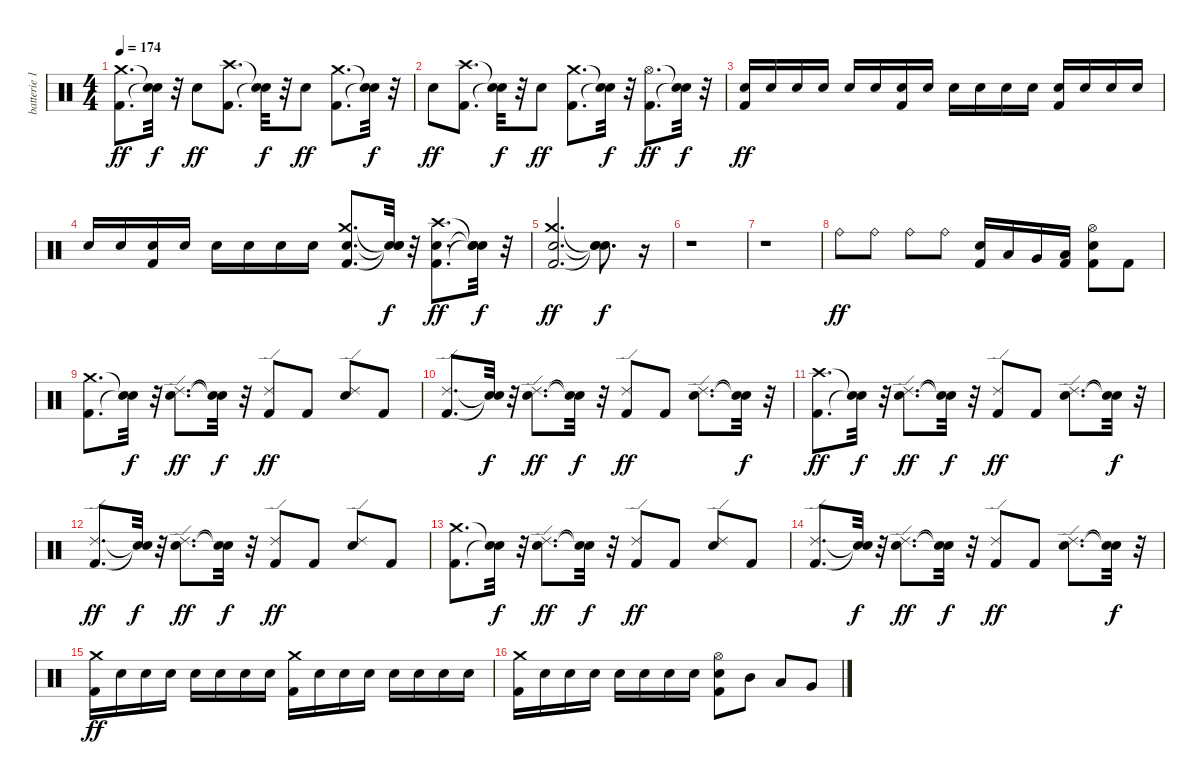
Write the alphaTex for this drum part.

\track ("batterie 1" "batterie 1") {instrument percussion}
\staff {score}
\articulation defaults
\ts (4 4)
\tempo 174
\clef neutral
\ks c
("Kick (hit) 2" "Crash medium (hit)").8{d dy ff} ("Snare (hit)"{t} "Snare (hit)"{t}).32{dy f} r.32 "Electric Snare (hit)".8{dy ff} ("Kick (hit) 2" "Crash high (hit)").8{d} ("Snare (hit)"{t} "Snare (hit)"{t}).32{dy f} r.32 "Electric Snare (hit)".8{dy ff} ("Kick (hit) 2" "Crash medium (hit)").8{d} ("Snare (hit)"{t} "Snare (hit)"{t}).32{dy f} r.32 |
"Electric Snare (hit)".8{dy ff} ("Kick (hit) 2" "Crash high (hit)").8{d} ("Snare (hit)"{t} "Snare (hit)"{t}).32{dy f} r.32 "Electric Snare (hit)".8{dy ff} ("Kick (hit) 2" "Crash medium (hit)").8{d} ("Snare (hit)"{t} "Snare (hit)"{t}).32{dy f} r.32 ("Kick (hit) 2" "Hi-Hat (open)").8{d dy ff} ("Snare (hit)"{t} "Snare (hit)"{t}).32{dy f} r.32 |
("Kick (hit) 2" "Electric Snare (hit)").16{dy ff} "Electric Snare (hit)".16 "Electric Snare (hit)".16 "Electric Snare (hit)".16 "Electric Snare (hit)".16 "Electric Snare (hit)".16 ("Kick (hit) 2" "Electric Snare (hit)").16 "Electric Snare (hit)".16 "Electric Snare (hit)".16 "Electric Snare (hit)".16 "Electric Snare (hit)".16 "Electric Snare (hit)".16 ("Kick (hit) 2" "Electric Snare (hit)").16 "Electric Snare (hit)".16 "Electric Snare (hit)".16 "Electric Snare (hit)".16 |
"Electric Snare (hit)".16 "Electric Snare (hit)".16 ("Kick (hit) 2" "Electric Snare (hit)").16 "Electric Snare (hit)".16 "Electric Snare (hit)".16 "Electric Snare (hit)".16 "Electric Snare (hit)".16 "Electric Snare (hit)".16 ("Kick (hit) 2" "Electric Snare (hit)" "Crash medium (hit)").8{d} ("Snare (hit)"{t} "Snare (hit)"{t} "Snare (hit)"{t}).32{dy f} r.32 ("Kick (hit) 2" "Electric Snare (hit)" "Crash high (hit)").8{d dy ff} ("Snare (hit)"{t} "Snare (hit)"{t} "Snare (hit)"{t}).32{dy f} r.32 |
("Kick (hit) 2" "Electric Snare (hit)" "Crash medium (hit)").2{d dy ff} ("Snare (hit)"{t} "Snare (hit)"{t} "Snare (hit)"{t}).8{d dy f} r.16 |
r.1 |
r.1 |
"Ride (bell)".8{dy ff} "Ride (bell)".8 "Ride (bell)".8 "Ride (bell)".8 ("Kick (hit) 2" "Electric Snare (hit)").16 "Low Tom (hit)".16 "Very Low Tom (hit)".16 ("Kick (hit) 2" "Low Floor Tom (hit)").16 ("Kick (hit) 2" "Electric Snare (hit)" "Hi-Hat (open)").8 "Kick (hit) 2".8 |
("Kick (hit) 2" "Crash medium (hit)").8{d} ("Snare (hit)"{t} "Snare (hit)"{t}).32{dy f} r.32 ("Electric Snare (hit)" "Ride (edge) 2").8{d dy ff} ("Snare (hit)"{t} "Snare (hit)"{t}).32{dy f} r.32 ("Kick (hit) 2" "Ride (edge) 2").8{dy ff} "Kick (hit) 2".8 ("Electric Snare (hit)" "Ride (edge) 2").8 "Kick (hit) 2".8 |
("Kick (hit) 2" "Ride (edge) 2").8{d} ("Snare (hit)"{t} "Snare (hit)"{t}).32{dy f} r.32 ("Electric Snare (hit)" "Ride (edge) 2").8{d dy ff} ("Snare (hit)"{t} "Snare (hit)"{t}).32{dy f} r.32 ("Kick (hit) 2" "Ride (edge) 2").8{dy ff} "Kick (hit) 2".8 ("Electric Snare (hit)" "Ride (edge) 2").8{d} ("Snare (hit)"{t} "Snare (hit)"{t}).32{dy f} r.32 |
("Kick (hit) 2" "Crash high (hit)").8{d dy ff} ("Snare (hit)"{t} "Snare (hit)"{t}).32{dy f} r.32 ("Electric Snare (hit)" "Ride (edge) 2").8{d dy ff} ("Snare (hit)"{t} "Snare (hit)"{t}).32{dy f} r.32 ("Kick (hit) 2" "Ride (edge) 2").8{dy ff} "Kick (hit) 2".8 ("Electric Snare (hit)" "Ride (edge) 2").8{d} ("Snare (hit)"{t} "Snare (hit)"{t}).32{dy f} r.32 |
("Kick (hit) 2" "Ride (edge) 2").8{d dy ff} ("Snare (hit)"{t} "Snare (hit)"{t}).32{dy f} r.32 ("Electric Snare (hit)" "Ride (edge) 2").8{d dy ff} ("Snare (hit)"{t} "Snare (hit)"{t}).32{dy f} r.32 ("Kick (hit) 2" "Ride (edge) 2").8{dy ff} "Kick (hit) 2".8 ("Electric Snare (hit)" "Ride (edge) 2").8 "Kick (hit) 2".8 |
("Kick (hit) 2" "Crash medium (hit)").8{d} ("Snare (hit)"{t} "Snare (hit)"{t}).32{dy f} r.32 ("Electric Snare (hit)" "Ride (edge) 2").8{d dy ff} ("Snare (hit)"{t} "Snare (hit)"{t}).32{dy f} r.32 ("Kick (hit) 2" "Ride (edge) 2").8{dy ff} "Kick (hit) 2".8 ("Electric Snare (hit)" "Ride (edge) 2").8 "Kick (hit) 2".8 |
("Kick (hit) 2" "Ride (edge) 2").8{d} ("Snare (hit)"{t} "Snare (hit)"{t}).32{dy f} r.32 ("Electric Snare (hit)" "Ride (edge) 2").8{d dy ff} ("Snare (hit)"{t} "Snare (hit)"{t}).32{dy f} r.32 ("Kick (hit) 2" "Ride (edge) 2").8{dy ff} "Kick (hit) 2".8 ("Electric Snare (hit)" "Ride (edge) 2").8{d} ("Snare (hit)"{t} "Snare (hit)"{t}).32{dy f} r.32 |
("Kick (hit) 2" "Crash medium (hit)").16{dy ff} "Electric Snare (hit)".16 "Electric Snare (hit)".16 "Electric Snare (hit)".16 "Electric Snare (hit)".16 "Electric Snare (hit)".16 "Electric Snare (hit)".16 "Electric Snare (hit)".16 ("Kick (hit) 2" "Crash medium (hit)").16 "Electric Snare (hit)".16 "Electric Snare (hit)".16 "Electric Snare (hit)".16 "Electric Snare (hit)".16 "Electric Snare (hit)".16 "Electric Snare (hit)".16 "Electric Snare (hit)".16 |
("Kick (hit) 2" "Crash medium (hit)").16 "Electric Snare (hit)".16 "Electric Snare (hit)".16 "Electric Snare (hit)".16 "Electric Snare (hit)".16 "Electric Snare (hit)".16 "Electric Snare (hit)".16 "Electric Snare (hit)".16 ("Kick (hit) 2" "Electric Snare (hit)" "Hi-Hat (open)").8 "Mid Tom (hit)".8 "Low Tom (hit)".8 "Very Low Tom (hit)".8
